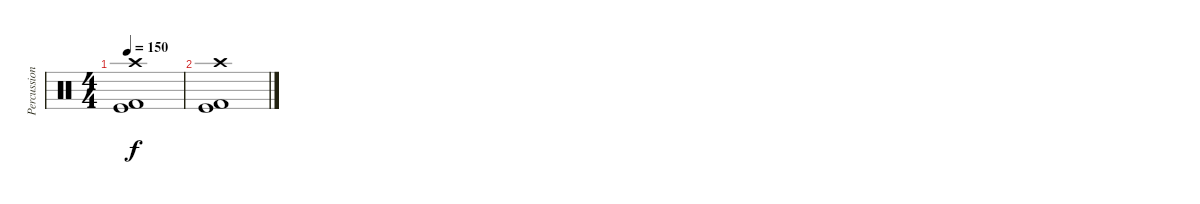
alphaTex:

\track ("Percussion" "Percussion") {instrument percussion}
\staff {score}
\articulation defaults
\ts (4 4)
\tempo 150
\clef neutral
\ks c
("Crash high (hit)" "Kick (hit)" "Kick (hit) 2").1{dy f} |
("Crash high (hit)" "Kick (hit)" "Kick (hit) 2").1
